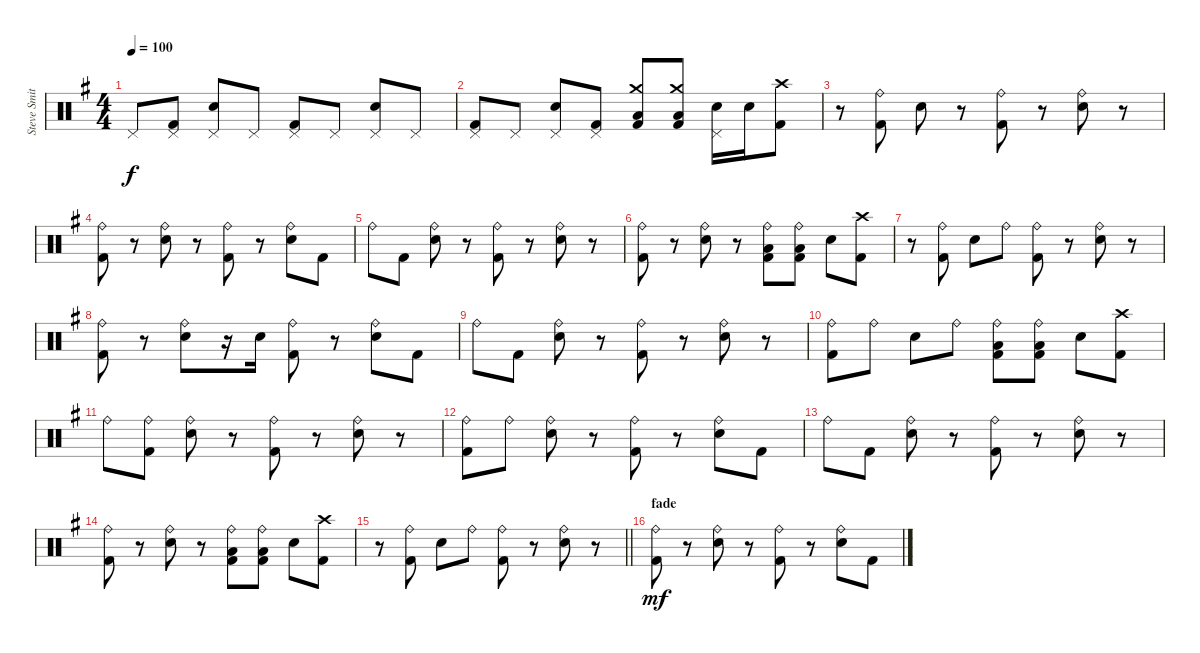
\track ("Steve Smith" "Steve Smit") {instrument percussion}
\staff {score}
\articulation defaults
\ts (4 4)
\tempo 100
\clef neutral
\ks g "Pedal Hi-Hat (hit)".8{dy f}
("Pedal Hi-Hat (hit)" "Kick (hit) 2").8 ("Pedal Hi-Hat (hit)" "Snare (hit) 2").8 "Pedal Hi-Hat (hit)".8 ("Pedal Hi-Hat (hit)" "Kick (hit) 2").8 "Pedal Hi-Hat (hit)".8 ("Pedal Hi-Hat (hit)" "Snare (hit) 2").8 "Pedal Hi-Hat (hit)".8 |
("Pedal Hi-Hat (hit)" "Kick (hit) 2").8 "Pedal Hi-Hat (hit)".8 ("Pedal Hi-Hat (hit)" "Snare (hit) 2").8 ("Pedal Hi-Hat (hit)" "Kick (hit) 2").8 ("Crash medium (hit)" "Low Tom (hit)" "Kick (hit) 2").8 ("Crash medium (hit)" "Low Tom (hit)" "Kick (hit) 2").8 ("Pedal Hi-Hat (hit)" "Snare (hit) 2").16 "Snare (hit) 2".16 ("Crash high (hit)" "Kick (hit) 2").8 |
r.8 ("Ride (bell)" "Kick (hit) 2").8 "Snare (hit) 2".8 r.8 ("Ride (bell)" "Kick (hit) 2").8 r.8 ("Ride (bell)" "Snare (hit) 2").8 r.8 |
("Ride (bell)" "Kick (hit) 2").8 r.8 ("Ride (bell)" "Snare (hit) 2").8 r.8 ("Ride (bell)" "Kick (hit) 2").8 r.8 ("Ride (bell)" "Snare (hit) 2").8 "Kick (hit) 2".8 |
"Ride (bell)".8 "Kick (hit) 2".8 ("Ride (bell)" "Snare (hit) 2").8 r.8 ("Ride (bell)" "Kick (hit) 2").8 r.8 ("Ride (bell)" "Snare (hit) 2").8 r.8 |
("Ride (bell)" "Kick (hit) 2").8 r.8 ("Ride (bell)" "Snare (hit) 2").8 r.8 ("Ride (bell)" "Low Tom (hit)" "Kick (hit) 2").8 ("Ride (bell)" "Low Tom (hit)" "Kick (hit) 2").8 "Snare (hit) 2".8 ("Crash high (hit)" "Kick (hit) 2").8 |
r.8 ("Ride (bell)" "Kick (hit) 2").8 "Snare (hit) 2".8 "Ride (bell)".8 ("Ride (bell)" "Kick (hit) 2").8 r.8 ("Ride (bell)" "Snare (hit) 2").8 r.8 |
("Ride (bell)" "Kick (hit) 2").8 r.8 ("Ride (bell)" "Snare (hit) 2").8 r.16 "Snare (hit) 2".16 ("Ride (bell)" "Kick (hit) 2").8 r.8 ("Ride (bell)" "Snare (hit) 2").8 "Kick (hit) 2".8 |
"Ride (bell)".8 "Kick (hit) 2".8 ("Ride (bell)" "Snare (hit) 2").8 r.8 ("Ride (bell)" "Kick (hit) 2").8 r.8 ("Ride (bell)" "Snare (hit) 2").8 r.8 |
("Ride (bell)" "Kick (hit) 2").8 "Ride (bell)".8 "Snare (hit) 2".8 "Ride (bell)".8 ("Ride (bell)" "Low Tom (hit)" "Kick (hit) 2").8 ("Ride (bell)" "Low Tom (hit)" "Kick (hit) 2").8 "Snare (hit) 2".8 ("Crash high (hit)" "Kick (hit) 2").8 |
"Ride (bell)".8 ("Ride (bell)" "Kick (hit) 2").8 ("Ride (bell)" "Snare (hit) 2").8 r.8 ("Ride (bell)" "Kick (hit) 2").8 r.8 ("Ride (bell)" "Snare (hit) 2").8 r.8 |
("Ride (bell)" "Kick (hit) 2").8 "Ride (bell)".8 ("Ride (bell)" "Snare (hit) 2").8 r.8 ("Ride (bell)" "Kick (hit) 2").8 r.8 ("Ride (bell)" "Snare (hit) 2").8 "Kick (hit) 2".8 |
"Ride (bell)".8 "Kick (hit) 2".8 ("Ride (bell)" "Snare (hit) 2").8 r.8 ("Ride (bell)" "Kick (hit) 2").8 r.8 ("Ride (bell)" "Snare (hit) 2").8 r.8 |
("Ride (bell)" "Kick (hit) 2").8 r.8 ("Ride (bell)" "Snare (hit) 2").8 r.8 ("Ride (bell)" "Low Tom (hit)" "Kick (hit) 2").8 ("Ride (bell)" "Low Tom (hit)" "Kick (hit) 2").8 "Snare (hit) 2".8 ("Crash high (hit)" "Kick (hit) 2").8 |
\barLineRight lightlight
r.8 ("Ride (bell)" "Kick (hit) 2").8 "Snare (hit) 2".8 "Ride (bell)".8 ("Ride (bell)" "Kick (hit) 2").8 r.8 ("Ride (bell)" "Snare (hit) 2").8 r.8 |
\section ("" "fade")
("Ride (bell)" "Kick (hit) 2").8{dy mf} r.8 ("Ride (bell)" "Snare (hit) 2").8 r.8 ("Ride (bell)" "Kick (hit) 2").8 r.8 ("Ride (bell)" "Snare (hit) 2").8 "Kick (hit) 2".8
